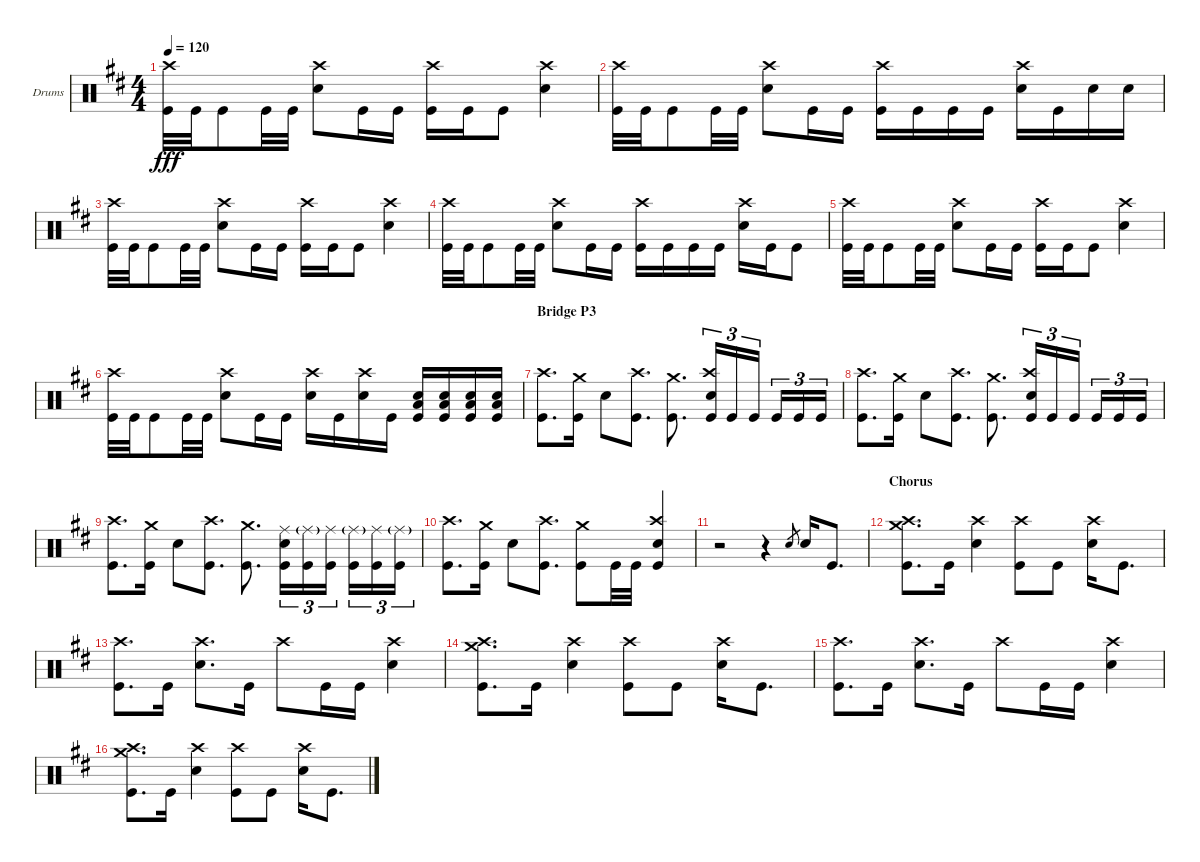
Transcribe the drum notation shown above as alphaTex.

\defaultSystemsLayout 4
\bracketExtendMode groupsimilarinstruments
\firstSystemTrackNameOrientation horizontal
\otherSystemsTrackNameOrientation horizontal
\track ("Garrett" "Drums") {instrument percussion}
\staff {score}
\articulation defaults
\ts (4 4)
\tempo 120
\clef neutral
\ks bminor
("Kick (hit)" "Crash high (hit)").32{dy fff} "Kick (hit)".32 "Kick (hit)".8 "Kick (hit)".32 "Kick (hit)".32 ("Snare (hit) 2" "Crash high (hit)").8 "Kick (hit)".16 "Kick (hit)".16 ("Kick (hit)" "Crash high (hit)").16 "Kick (hit)".16 "Kick (hit)".8 ("Snare (hit) 2" "Crash high (hit)").4 |
("Kick (hit)" "Crash high (hit)").32 "Kick (hit)".32 "Kick (hit)".8 "Kick (hit)".32 "Kick (hit)".32 ("Snare (hit) 2" "Crash high (hit)").8 "Kick (hit)".16 "Kick (hit)".16 ("Kick (hit)" "Crash high (hit)").16 "Kick (hit)".16 "Kick (hit)".16 "Kick (hit)".16 ("Snare (hit) 2" "Crash high (hit)").16 "Kick (hit)".16 "Snare (hit) 2".16 "Snare (hit) 2".16 |
("Kick (hit)" "Crash high (hit)").32 "Kick (hit)".32 "Kick (hit)".8 "Kick (hit)".32 "Kick (hit)".32 ("Snare (hit) 2" "Crash high (hit)").8 "Kick (hit)".16 "Kick (hit)".16 ("Kick (hit)" "Crash high (hit)").16 "Kick (hit)".16 "Kick (hit)".8 ("Snare (hit) 2" "Crash high (hit)").4 |
("Kick (hit)" "Crash high (hit)").32 "Kick (hit)".32 "Kick (hit)".8 "Kick (hit)".32 "Kick (hit)".32 ("Snare (hit) 2" "Crash high (hit)").8 "Kick (hit)".16 "Kick (hit)".16 ("Kick (hit)" "Crash high (hit)").16 "Kick (hit)".16 "Kick (hit)".16 "Kick (hit)".16 ("Snare (hit) 2" "Crash high (hit)").16 "Kick (hit)".16 "Kick (hit)".8 |
("Kick (hit)" "Crash high (hit)").32 "Kick (hit)".32 "Kick (hit)".8 "Kick (hit)".32 "Kick (hit)".32 ("Snare (hit) 2" "Crash high (hit)").8 "Kick (hit)".16 "Kick (hit)".16 ("Kick (hit)" "Crash high (hit)").16 "Kick (hit)".16 "Kick (hit)".8 ("Snare (hit) 2" "Crash high (hit)").4 |
("Kick (hit)" "Crash high (hit)").32 "Kick (hit)".32 "Kick (hit)".8 "Kick (hit)".32 "Kick (hit)".32 ("Snare (hit) 2" "Crash high (hit)").8 "Kick (hit)".16 "Kick (hit)".16 ("Snare (hit) 2" "Crash high (hit)").16 "Kick (hit)".16 ("Snare (hit) 2" "Crash high (hit)").16 "Kick (hit)".16 ("Snare (hit) 2" "Low Tom (hit)" "Kick (hit)").16 ("Kick (hit)" "Snare (hit) 2" "Low Tom (hit)").16 ("Snare (hit) 2" "Low Tom (hit)" "Kick (hit)").16 ("Snare (hit) 2" "Low Tom (hit)" "Kick (hit)").16 |
\section ("" "Bridge P3")
("Kick (hit)" "Crash high (hit)").8{d} ("Kick (hit)" "Crash medium (hit)").16 "Snare (hit) 2".8 ("Kick (hit)" "Crash high (hit)").8{d} ("Kick (hit)" "Crash medium (hit)").8{d} ("Snare (hit) 2" "Kick (hit)" "Crash high (hit)").16{tu (3 2)} "Kick (hit)".16{tu (3 2)} "Kick (hit)".16{tu (3 2)} "Kick (hit)".16{tu (3 2)} "Kick (hit)".16{tu (3 2)} "Kick (hit)".16{tu (3 2)} |
("Kick (hit)" "Crash high (hit)").8{d} ("Kick (hit)" "Crash medium (hit)").16 "Snare (hit) 2".8 ("Kick (hit)" "Crash high (hit)").8{d} ("Kick (hit)" "Crash medium (hit)").8{d} ("Snare (hit) 2" "Kick (hit)" "Crash high (hit)").16{tu (3 2)} "Kick (hit)".16{tu (3 2)} "Kick (hit)".16{tu (3 2)} "Kick (hit)".16{tu (3 2)} "Kick (hit)".16{tu (3 2)} "Kick (hit)".16{tu (3 2)} |
("Kick (hit)" "Crash high (hit)").8{d} ("Kick (hit)" "Crash medium (hit)").16 "Snare (hit) 2".8 ("Kick (hit)" "Crash high (hit)").8{d} ("Kick (hit)" "Crash medium (hit)").8{d} ("Snare (hit) 2" "Kick (hit)" "Ride (middle)").16{tu (3 2)} ("Kick (hit)" "Ride (middle)"{g}).16{tu (3 2)} ("Kick (hit)" "Ride (middle)").16{tu (3 2)} ("Kick (hit)" "Ride (middle)"{g}).16{tu (3 2)} ("Kick (hit)" "Ride (middle)").16{tu (3 2)} ("Kick (hit)" "Ride (middle)"{g}).16{tu (3 2)} |
("Kick (hit)" "Crash high (hit)").8{d} ("Kick (hit)" "Crash medium (hit)").16 "Snare (hit) 2".8 ("Kick (hit)" "Crash high (hit)").8{d} ("Kick (hit)" "Crash medium (hit)").8 "Kick (hit)".32 "Kick (hit)".32 ("Snare (hit) 2" "Kick (hit)" "Crash high (hit)").4 |
r.2 r.4 "Snare (hit) 2".8{gr} "Snare (hit) 2".16 "Kick (hit)".8{d} |
\section ("" "Chorus")
("Crash high (hit)" "Kick (hit)" "Crash medium (hit)").8{d} "Kick (hit)".16 ("Snare (hit) 2" "Crash high (hit)").4 ("Crash high (hit)" "Kick (hit)").8 "Kick (hit)".8 ("Snare (hit) 2" "Crash high (hit)").16 "Kick (hit)".8{d} |
("Crash high (hit)" "Kick (hit)").8{d} "Kick (hit)".16 ("Snare (hit) 2" "Crash high (hit)").8{d} "Kick (hit)".16 "Crash high (hit)".8 "Kick (hit)".16 "Kick (hit)".16 ("Snare (hit) 2" "Crash high (hit)").4 |
("Crash high (hit)" "Kick (hit)" "Crash medium (hit)").8{d} "Kick (hit)".16 ("Snare (hit) 2" "Crash high (hit)").4 ("Crash high (hit)" "Kick (hit)").8 "Kick (hit)".8 ("Snare (hit) 2" "Crash high (hit)").16 "Kick (hit)".8{d} |
("Crash high (hit)" "Kick (hit)").8{d} "Kick (hit)".16 ("Snare (hit) 2" "Crash high (hit)").8{d} "Kick (hit)".16 "Crash high (hit)".8 "Kick (hit)".16 "Kick (hit)".16 ("Snare (hit) 2" "Crash high (hit)").4 |
("Crash high (hit)" "Kick (hit)" "Crash medium (hit)").8{d} "Kick (hit)".16 ("Snare (hit) 2" "Crash high (hit)").4 ("Crash high (hit)" "Kick (hit)").8 "Kick (hit)".8 ("Snare (hit) 2" "Crash high (hit)").16 "Kick (hit)".8{d}
